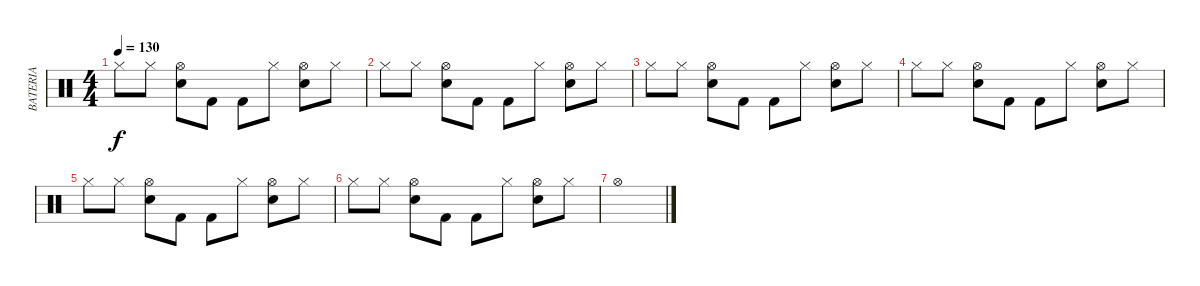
\track ("BATERIA" "BATERIA") {mute instrument percussion}
\staff {score}
\articulation defaults
\ts (4 4)
\tempo 130
\clef neutral
\ks c "Hi-Hat (closed)".8{dy f} "Hi-Hat (closed)".8
("Snare (hit) 2" "Hi-Hat (open)").8 "Kick (hit) 2".8 "Kick (hit) 2".8 "Hi-Hat (closed)".8 ("Snare (hit) 2" "Hi-Hat (open)").8 "Hi-Hat (closed)".8 |
"Hi-Hat (closed)".8 "Hi-Hat (closed)".8 ("Snare (hit) 2" "Hi-Hat (open)").8 "Kick (hit) 2".8 "Kick (hit) 2".8 "Hi-Hat (closed)".8 ("Snare (hit) 2" "Hi-Hat (open)").8 "Hi-Hat (closed)".8 |
"Hi-Hat (closed)".8 "Hi-Hat (closed)".8 ("Snare (hit) 2" "Hi-Hat (open)").8 "Kick (hit) 2".8 "Kick (hit) 2".8 "Hi-Hat (closed)".8 ("Snare (hit) 2" "Hi-Hat (open)").8 "Hi-Hat (closed)".8 |
"Hi-Hat (closed)".8 "Hi-Hat (closed)".8 ("Snare (hit) 2" "Hi-Hat (open)").8 "Kick (hit) 2".8 "Kick (hit) 2".8 "Hi-Hat (closed)".8 ("Snare (hit) 2" "Hi-Hat (open)").8 "Hi-Hat (closed)".8 |
"Hi-Hat (closed)".8 "Hi-Hat (closed)".8 ("Snare (hit) 2" "Hi-Hat (open)").8 "Kick (hit) 2".8 "Kick (hit) 2".8 "Hi-Hat (closed)".8 ("Snare (hit) 2" "Hi-Hat (open)").8 "Hi-Hat (closed)".8 |
"Hi-Hat (closed)".8 "Hi-Hat (closed)".8 ("Snare (hit) 2" "Hi-Hat (open)").8 "Kick (hit) 2".8 "Kick (hit) 2".8 "Hi-Hat (closed)".8 ("Snare (hit) 2" "Hi-Hat (open)").8 "Hi-Hat (closed)".8 |
"Hi-Hat (open)".1
